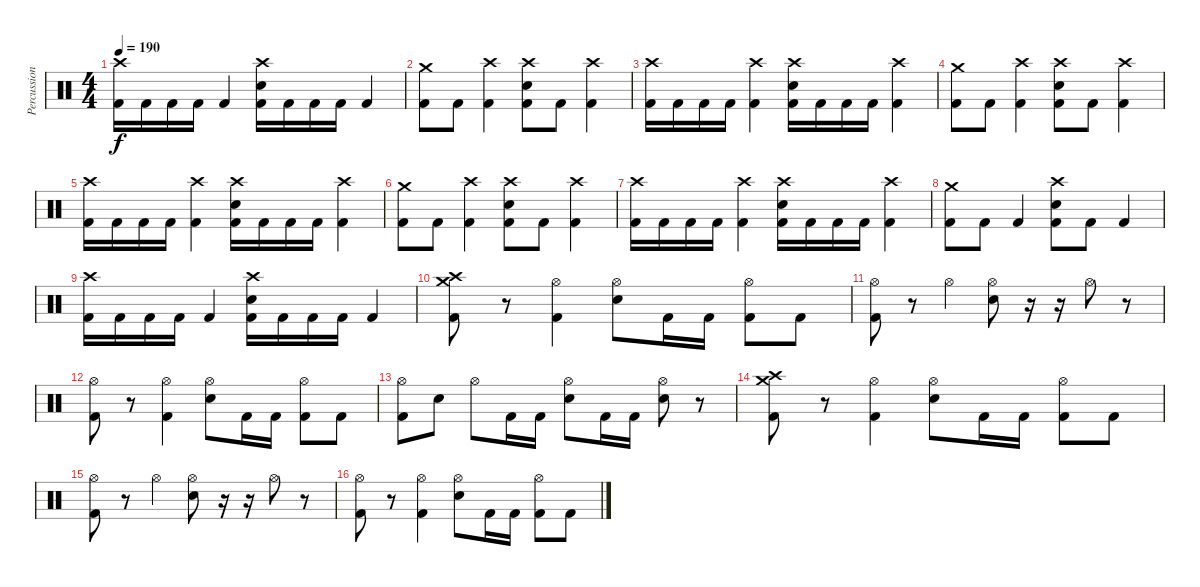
\track ("Percussion" "Percussion") {instrument percussion}
\staff {score}
\articulation defaults
\ts (4 4)
\tempo 190
\clef neutral
\ks c
("Crash high (hit)" "Kick (hit) 2").16{dy f} "Kick (hit) 2".16 "Kick (hit) 2".16 "Kick (hit) 2".16 "Kick (hit) 2".4 ("Crash high (hit)" "Electric Snare (hit)" "Kick (hit) 2").16 "Kick (hit) 2".16 "Kick (hit) 2".16 "Kick (hit) 2".16 "Kick (hit) 2".4 |
("Crash medium (hit)" "Kick (hit) 2").8 "Kick (hit) 2".8 ("Crash high (hit)" "Kick (hit) 2").4 ("Crash high (hit)" "Electric Snare (hit)" "Kick (hit) 2").8 "Kick (hit) 2".8 ("Crash high (hit)" "Kick (hit) 2").4 |
("Crash high (hit)" "Kick (hit) 2").16 "Kick (hit) 2".16 "Kick (hit) 2".16 "Kick (hit) 2".16 ("Crash high (hit)" "Kick (hit) 2").4 ("Crash high (hit)" "Electric Snare (hit)" "Kick (hit) 2").16 "Kick (hit) 2".16 "Kick (hit) 2".16 "Kick (hit) 2".16 ("Crash high (hit)" "Kick (hit) 2").4 |
("Crash medium (hit)" "Kick (hit) 2").8 "Kick (hit) 2".8 ("Crash high (hit)" "Kick (hit) 2").4 ("Crash high (hit)" "Electric Snare (hit)" "Kick (hit) 2").8 "Kick (hit) 2".8 ("Crash high (hit)" "Kick (hit) 2").4 |
("Crash high (hit)" "Kick (hit) 2").16 "Kick (hit) 2".16 "Kick (hit) 2".16 "Kick (hit) 2".16 ("Crash high (hit)" "Kick (hit) 2").4 ("Crash high (hit)" "Electric Snare (hit)" "Kick (hit) 2").16 "Kick (hit) 2".16 "Kick (hit) 2".16 "Kick (hit) 2".16 ("Crash high (hit)" "Kick (hit) 2").4 |
("Crash medium (hit)" "Kick (hit) 2").8 "Kick (hit) 2".8 ("Crash high (hit)" "Kick (hit) 2").4 ("Crash high (hit)" "Electric Snare (hit)" "Kick (hit) 2").8 "Kick (hit) 2".8 ("Crash high (hit)" "Kick (hit) 2").4 |
("Crash high (hit)" "Kick (hit) 2").16 "Kick (hit) 2".16 "Kick (hit) 2".16 "Kick (hit) 2".16 ("Crash high (hit)" "Kick (hit) 2").4 ("Crash high (hit)" "Electric Snare (hit)" "Kick (hit) 2").16 "Kick (hit) 2".16 "Kick (hit) 2".16 "Kick (hit) 2".16 ("Crash high (hit)" "Kick (hit) 2").4 |
("Crash medium (hit)" "Kick (hit) 2").8 "Kick (hit) 2".8 "Kick (hit) 2".4 ("Crash high (hit)" "Electric Snare (hit)" "Kick (hit) 2").8 "Kick (hit) 2".8 "Kick (hit) 2".4 |
("Crash high (hit)" "Kick (hit) 2").16 "Kick (hit) 2".16 "Kick (hit) 2".16 "Kick (hit) 2".16 "Kick (hit) 2".4 ("Crash high (hit)" "Electric Snare (hit)" "Kick (hit) 2").16 "Kick (hit) 2".16 "Kick (hit) 2".16 "Kick (hit) 2".16 "Kick (hit) 2".4 |
("Crash medium (hit)" "Crash high (hit)" "Kick (hit) 2").8 r.8 ("Hi-Hat (open)" "Kick (hit) 2").4 ("Hi-Hat (open)" "Electric Snare (hit)").8 "Kick (hit) 2".16 "Kick (hit) 2".16 ("Hi-Hat (open)" "Kick (hit) 2").8 "Kick (hit) 2".8 |
("Hi-Hat (open)" "Kick (hit) 2").8 r.8 "Hi-Hat (open)".4 ("Hi-Hat (open)" "Electric Snare (hit)").8 r.16 r.16 "Hi-Hat (open)".8 r.8 |
("Hi-Hat (open)" "Kick (hit) 2").8 r.8 ("Hi-Hat (open)" "Kick (hit) 2").4 ("Hi-Hat (open)" "Electric Snare (hit)").8 "Kick (hit) 2".16 "Kick (hit) 2".16 ("Hi-Hat (open)" "Kick (hit) 2").8 "Kick (hit) 2".8 |
("Hi-Hat (open)" "Kick (hit) 2").8 "Electric Snare (hit)".8 "Hi-Hat (open)".8 "Kick (hit) 2".16 "Kick (hit) 2".16 ("Hi-Hat (open)" "Electric Snare (hit)").8 "Kick (hit) 2".16 "Kick (hit) 2".16 ("Hi-Hat (open)" "Electric Snare (hit)").8 r.8 |
("Crash medium (hit)" "Crash high (hit)" "Kick (hit) 2").8 r.8 ("Hi-Hat (open)" "Kick (hit) 2").4 ("Hi-Hat (open)" "Electric Snare (hit)").8 "Kick (hit) 2".16 "Kick (hit) 2".16 ("Hi-Hat (open)" "Kick (hit) 2").8 "Kick (hit) 2".8 |
("Hi-Hat (open)" "Kick (hit) 2").8 r.8 "Hi-Hat (open)".4 ("Hi-Hat (open)" "Electric Snare (hit)").8 r.16 r.16 "Hi-Hat (open)".8 r.8 |
("Hi-Hat (open)" "Kick (hit) 2").8 r.8 ("Hi-Hat (open)" "Kick (hit) 2").4 ("Hi-Hat (open)" "Electric Snare (hit)").8 "Kick (hit) 2".16 "Kick (hit) 2".16 ("Hi-Hat (open)" "Kick (hit) 2").8 "Kick (hit) 2".8
